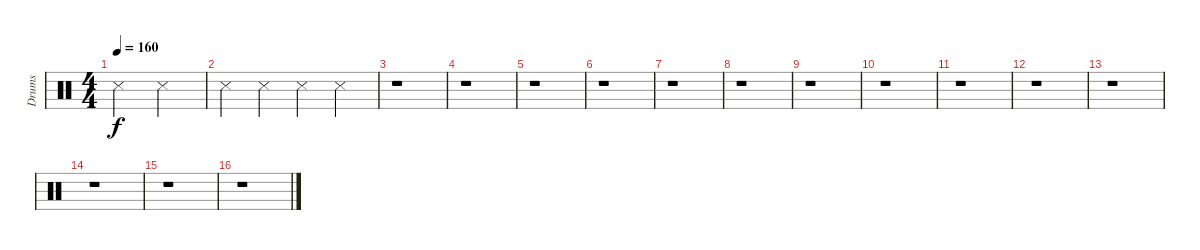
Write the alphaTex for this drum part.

\track ("Drums" "Drums") {instrument percussion}
\staff {score}
\articulation defaults
\ts (4 4)
\tempo 160
\clef neutral
\ks c "Snare (side stick) 3".2{dy f} "Snare (side stick) 3".2
|
"Snare (side stick) 3".4 "Snare (side stick) 3".4 "Snare (side stick) 3".4 "Snare (side stick) 3".4 |
\section ("" " ")
r.1 |
r.1 |
r.1 |
r.1 |
r.1 |
r.1 |
r.1 |
r.1 |
r.1 |
r.1 |
r.1 |
r.1 |
r.1 |
r.1
